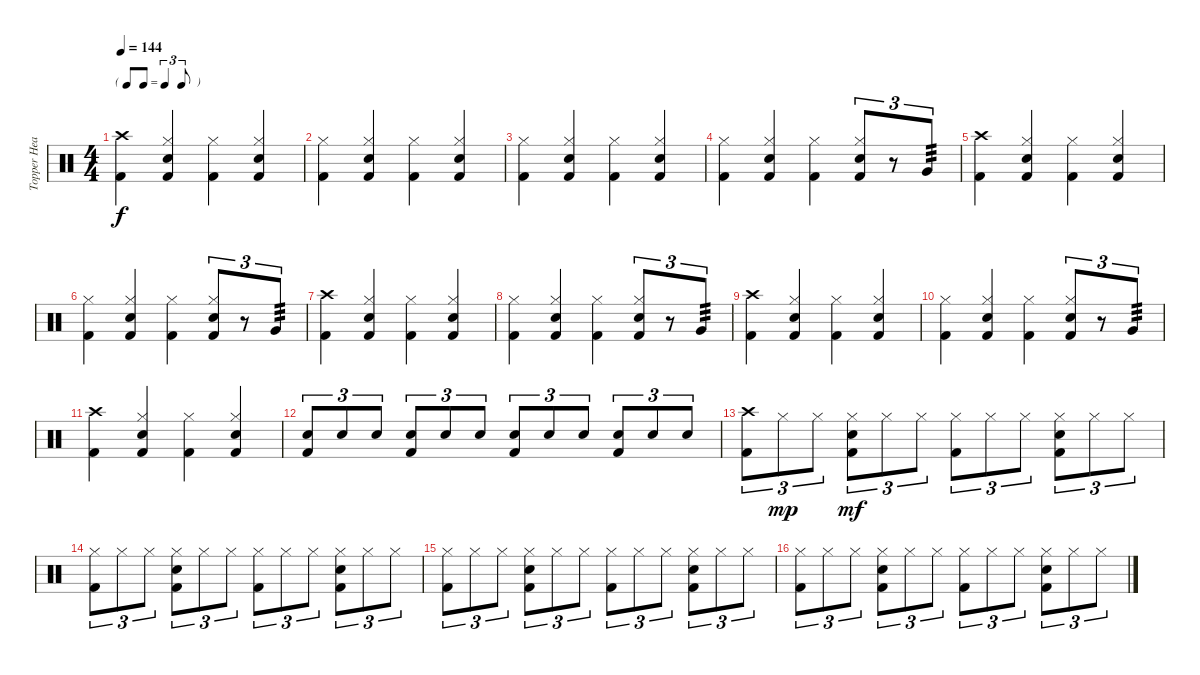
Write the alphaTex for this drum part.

\track ("Topper Headon" "Topper Hea") {instrument percussion}
\staff {score}
\articulation defaults
\ts (4 4)
\tf triplet8th
\tempo 144
\clef neutral
\ks c
("Crash high (hit)" "Kick (hit) 2").4{dy f} ("Hi-Hat (closed)" "Snare (hit) 2" "Kick (hit) 2").4 ("Hi-Hat (closed)" "Kick (hit) 2").4 ("Hi-Hat (closed)" "Snare (hit) 2" "Kick (hit) 2").4 |
("Hi-Hat (closed)" "Kick (hit) 2").4 ("Hi-Hat (closed)" "Snare (hit) 2" "Kick (hit) 2").4 ("Hi-Hat (closed)" "Kick (hit) 2").4 ("Hi-Hat (closed)" "Snare (hit) 2" "Kick (hit) 2").4 |
("Hi-Hat (closed)" "Kick (hit) 2").4 ("Hi-Hat (closed)" "Snare (hit) 2" "Kick (hit) 2").4 ("Hi-Hat (closed)" "Kick (hit) 2").4 ("Hi-Hat (closed)" "Snare (hit) 2" "Kick (hit) 2").4 |
("Hi-Hat (closed)" "Kick (hit) 2").4 ("Hi-Hat (closed)" "Snare (hit) 2" "Kick (hit) 2").4 ("Hi-Hat (closed)" "Kick (hit) 2").4 ("Hi-Hat (closed)" "Snare (hit) 2" "Kick (hit) 2").8{tu (3 2)} r.8{tu (3 2)} "Very Low Tom (hit)".8{tu (3 2) tp 3} |
("Crash high (hit)" "Kick (hit) 2").4 ("Hi-Hat (closed)" "Snare (hit) 2" "Kick (hit) 2").4 ("Hi-Hat (closed)" "Kick (hit) 2").4 ("Hi-Hat (closed)" "Snare (hit) 2" "Kick (hit) 2").4 |
("Hi-Hat (closed)" "Kick (hit) 2").4 ("Hi-Hat (closed)" "Snare (hit) 2" "Kick (hit) 2").4 ("Hi-Hat (closed)" "Kick (hit) 2").4 ("Hi-Hat (closed)" "Snare (hit) 2" "Kick (hit) 2").8{tu (3 2)} r.8{tu (3 2)} "Very Low Tom (hit)".8{tu (3 2) tp 3} |
("Crash high (hit)" "Kick (hit) 2").4 ("Hi-Hat (closed)" "Snare (hit) 2" "Kick (hit) 2").4 ("Hi-Hat (closed)" "Kick (hit) 2").4 ("Hi-Hat (closed)" "Snare (hit) 2" "Kick (hit) 2").4 |
("Hi-Hat (closed)" "Kick (hit) 2").4 ("Hi-Hat (closed)" "Snare (hit) 2" "Kick (hit) 2").4 ("Hi-Hat (closed)" "Kick (hit) 2").4 ("Hi-Hat (closed)" "Snare (hit) 2" "Kick (hit) 2").8{tu (3 2)} r.8{tu (3 2)} "Very Low Tom (hit)".8{tu (3 2) tp 3} |
("Crash high (hit)" "Kick (hit) 2").4 ("Hi-Hat (closed)" "Snare (hit) 2" "Kick (hit) 2").4 ("Hi-Hat (closed)" "Kick (hit) 2").4 ("Hi-Hat (closed)" "Snare (hit) 2" "Kick (hit) 2").4 |
("Hi-Hat (closed)" "Kick (hit) 2").4 ("Hi-Hat (closed)" "Snare (hit) 2" "Kick (hit) 2").4 ("Hi-Hat (closed)" "Kick (hit) 2").4 ("Hi-Hat (closed)" "Snare (hit) 2" "Kick (hit) 2").8{tu (3 2)} r.8{tu (3 2)} "Very Low Tom (hit)".8{tu (3 2) tp 3} |
("Crash high (hit)" "Kick (hit) 2").4 ("Hi-Hat (closed)" "Snare (hit) 2" "Kick (hit) 2").4 ("Hi-Hat (closed)" "Kick (hit) 2").4 ("Hi-Hat (closed)" "Snare (hit) 2" "Kick (hit) 2").4 |
("Snare (hit) 2" "Kick (hit) 2").8{tu (3 2)} "Snare (hit) 2".8{tu (3 2)} "Snare (hit) 2".8{tu (3 2)} ("Snare (hit) 2" "Kick (hit) 2").8{tu (3 2)} "Snare (hit) 2".8{tu (3 2)} "Snare (hit) 2".8{tu (3 2)} ("Snare (hit) 2" "Kick (hit) 2").8{tu (3 2)} "Snare (hit) 2".8{tu (3 2)} "Snare (hit) 2".8{tu (3 2)} ("Snare (hit) 2" "Kick (hit) 2").8{tu (3 2)} "Snare (hit) 2".8{tu (3 2)} "Snare (hit) 2".8{tu (3 2)} |
("Crash high (hit)" "Kick (hit) 2").8{tu (3 2)} "Hi-Hat (closed)".8{tu (3 2) dy mp} "Hi-Hat (closed)".8{tu (3 2)} ("Hi-Hat (closed)" "Snare (hit) 2" "Kick (hit) 2").8{tu (3 2) dy mf} "Hi-Hat (closed)".8{tu (3 2)} "Hi-Hat (closed)".8{tu (3 2)} ("Hi-Hat (closed)" "Kick (hit) 2").8{tu (3 2)} "Hi-Hat (closed)".8{tu (3 2)} "Hi-Hat (closed)".8{tu (3 2)} ("Hi-Hat (closed)" "Snare (hit) 2" "Kick (hit) 2").8{tu (3 2)} "Hi-Hat (closed)".8{tu (3 2)} "Hi-Hat (closed)".8{tu (3 2)} |
("Hi-Hat (closed)" "Kick (hit) 2").8{tu (3 2)} "Hi-Hat (closed)".8{tu (3 2)} "Hi-Hat (closed)".8{tu (3 2)} ("Hi-Hat (closed)" "Snare (hit) 2" "Kick (hit) 2").8{tu (3 2)} "Hi-Hat (closed)".8{tu (3 2)} "Hi-Hat (closed)".8{tu (3 2)} ("Hi-Hat (closed)" "Kick (hit) 2").8{tu (3 2)} "Hi-Hat (closed)".8{tu (3 2)} "Hi-Hat (closed)".8{tu (3 2)} ("Hi-Hat (closed)" "Snare (hit) 2" "Kick (hit) 2").8{tu (3 2)} "Hi-Hat (closed)".8{tu (3 2)} "Hi-Hat (closed)".8{tu (3 2)} |
("Hi-Hat (closed)" "Kick (hit) 2").8{tu (3 2)} "Hi-Hat (closed)".8{tu (3 2)} "Hi-Hat (closed)".8{tu (3 2)} ("Hi-Hat (closed)" "Snare (hit) 2" "Kick (hit) 2").8{tu (3 2)} "Hi-Hat (closed)".8{tu (3 2)} "Hi-Hat (closed)".8{tu (3 2)} ("Hi-Hat (closed)" "Kick (hit) 2").8{tu (3 2)} "Hi-Hat (closed)".8{tu (3 2)} "Hi-Hat (closed)".8{tu (3 2)} ("Hi-Hat (closed)" "Snare (hit) 2" "Kick (hit) 2").8{tu (3 2)} "Hi-Hat (closed)".8{tu (3 2)} "Hi-Hat (closed)".8{tu (3 2)} |
("Hi-Hat (closed)" "Kick (hit) 2").8{tu (3 2)} "Hi-Hat (closed)".8{tu (3 2)} "Hi-Hat (closed)".8{tu (3 2)} ("Hi-Hat (closed)" "Snare (hit) 2" "Kick (hit) 2").8{tu (3 2)} "Hi-Hat (closed)".8{tu (3 2)} "Hi-Hat (closed)".8{tu (3 2)} ("Hi-Hat (closed)" "Kick (hit) 2").8{tu (3 2)} "Hi-Hat (closed)".8{tu (3 2)} "Hi-Hat (closed)".8{tu (3 2)} ("Hi-Hat (closed)" "Snare (hit) 2" "Kick (hit) 2").8{tu (3 2)} "Hi-Hat (closed)".8{tu (3 2)} "Hi-Hat (closed)".8{tu (3 2)}
